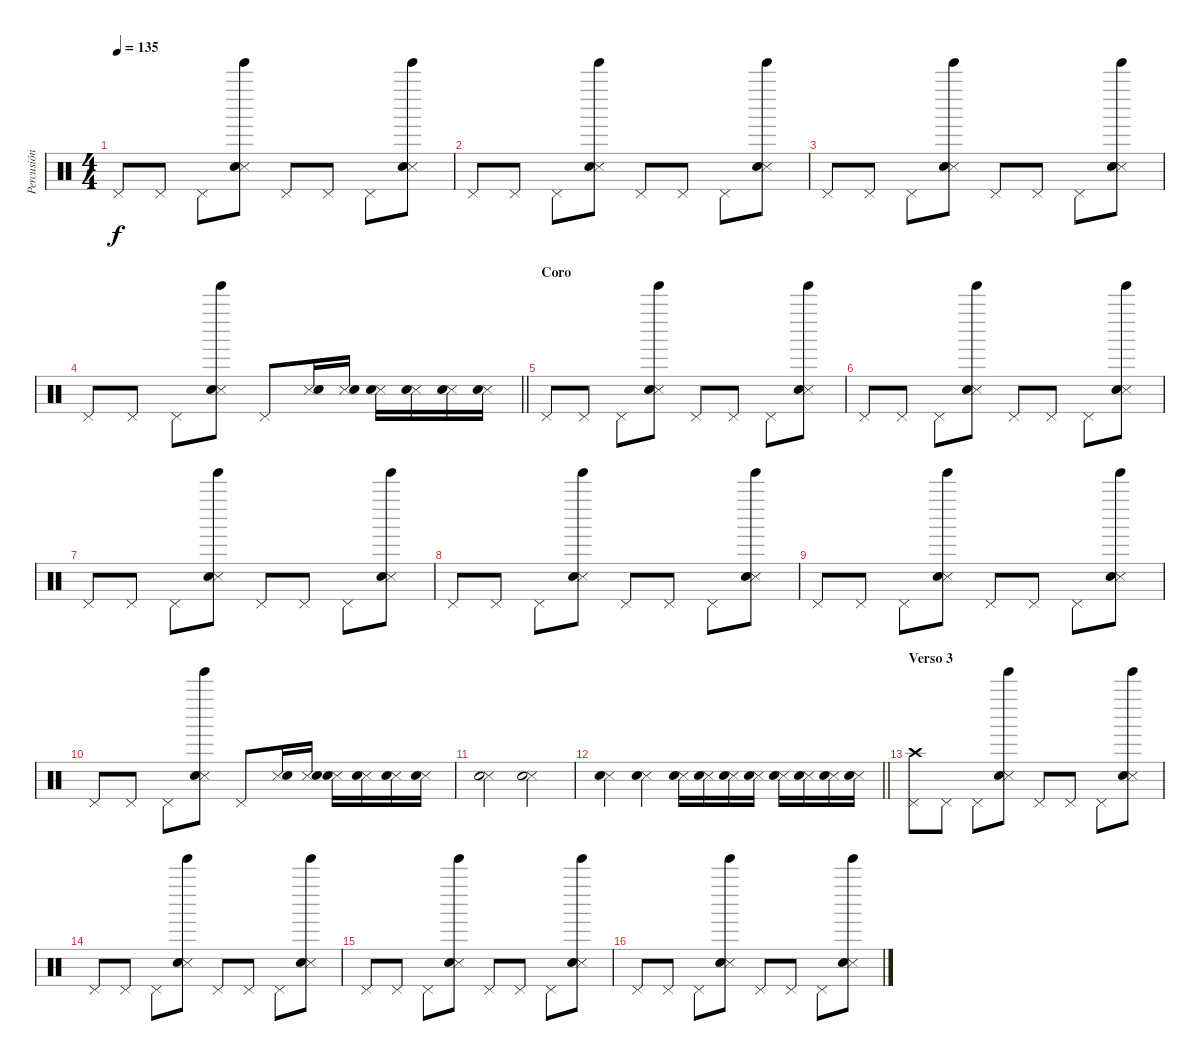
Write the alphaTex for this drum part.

\track ("Percusión" "Percusión") {instrument percussion}
\staff {score}
\articulation defaults
\ts (4 4)
\tempo 135
\clef neutral
\ks c "Pedal Hi-Hat (hit)".8{dy f} "Pedal Hi-Hat (hit)".8 "Pedal Hi-Hat (hit)".8
("Tinkle Bell (hit)" "Snare (side stick) 3" "Snare (hit) 2").8 "Pedal Hi-Hat (hit)".8 "Pedal Hi-Hat (hit)".8 "Pedal Hi-Hat (hit)".8 ("Tinkle Bell (hit)" "Snare (side stick) 3" "Snare (hit) 2").8 |
"Pedal Hi-Hat (hit)".8 "Pedal Hi-Hat (hit)".8 "Pedal Hi-Hat (hit)".8 ("Tinkle Bell (hit)" "Snare (side stick) 3" "Snare (hit) 2").8 "Pedal Hi-Hat (hit)".8 "Pedal Hi-Hat (hit)".8 "Pedal Hi-Hat (hit)".8 ("Tinkle Bell (hit)" "Snare (side stick) 3" "Snare (hit) 2").8 |
"Pedal Hi-Hat (hit)".8 "Pedal Hi-Hat (hit)".8 "Pedal Hi-Hat (hit)".8 ("Tinkle Bell (hit)" "Snare (side stick) 3" "Snare (hit) 2").8 "Pedal Hi-Hat (hit)".8 "Pedal Hi-Hat (hit)".8 "Pedal Hi-Hat (hit)".8 ("Tinkle Bell (hit)" "Snare (side stick) 3" "Snare (hit) 2").8 |
\barLineRight lightlight "Pedal Hi-Hat (hit)".8 "Pedal Hi-Hat (hit)".8 "Pedal Hi-Hat (hit)".8
("Tinkle Bell (hit)" "Snare (side stick) 3" "Snare (hit) 2").8 "Pedal Hi-Hat (hit)".8 ("Snare (side stick) 3" "Snare (hit) 2").16 ("Snare (side stick) 3" "Snare (hit) 2").16 ("Snare (side stick) 3" "Snare (hit) 2").16 ("Snare (side stick) 3" "Snare (hit) 2").16 ("Snare (side stick) 3" "Snare (hit) 2").16 ("Snare (side stick) 3" "Snare (hit) 2").16 |
\section ("" "Coro")
"Pedal Hi-Hat (hit)".8 "Pedal Hi-Hat (hit)".8 "Pedal Hi-Hat (hit)".8 ("Tinkle Bell (hit)" "Snare (side stick) 3" "Snare (hit) 2").8 "Pedal Hi-Hat (hit)".8 "Pedal Hi-Hat (hit)".8 "Pedal Hi-Hat (hit)".8 ("Tinkle Bell (hit)" "Snare (side stick) 3" "Snare (hit) 2").8 |
"Pedal Hi-Hat (hit)".8 "Pedal Hi-Hat (hit)".8 "Pedal Hi-Hat (hit)".8 ("Tinkle Bell (hit)" "Snare (side stick) 3" "Snare (hit) 2").8 "Pedal Hi-Hat (hit)".8 "Pedal Hi-Hat (hit)".8 "Pedal Hi-Hat (hit)".8 ("Tinkle Bell (hit)" "Snare (side stick) 3" "Snare (hit) 2").8 |
"Pedal Hi-Hat (hit)".8 "Pedal Hi-Hat (hit)".8 "Pedal Hi-Hat (hit)".8 ("Tinkle Bell (hit)" "Snare (side stick) 3" "Snare (hit) 2").8 "Pedal Hi-Hat (hit)".8 "Pedal Hi-Hat (hit)".8 "Pedal Hi-Hat (hit)".8 ("Tinkle Bell (hit)" "Snare (side stick) 3" "Snare (hit) 2").8 |
"Pedal Hi-Hat (hit)".8 "Pedal Hi-Hat (hit)".8 "Pedal Hi-Hat (hit)".8 ("Tinkle Bell (hit)" "Snare (side stick) 3" "Snare (hit) 2").8 "Pedal Hi-Hat (hit)".8 "Pedal Hi-Hat (hit)".8 "Pedal Hi-Hat (hit)".8 ("Tinkle Bell (hit)" "Snare (side stick) 3" "Snare (hit) 2").8 |
"Pedal Hi-Hat (hit)".8 "Pedal Hi-Hat (hit)".8 "Pedal Hi-Hat (hit)".8 ("Tinkle Bell (hit)" "Snare (side stick) 3" "Snare (hit) 2").8 "Pedal Hi-Hat (hit)".8 "Pedal Hi-Hat (hit)".8 "Pedal Hi-Hat (hit)".8 ("Tinkle Bell (hit)" "Snare (side stick) 3" "Snare (hit) 2").8 |
"Pedal Hi-Hat (hit)".8 "Pedal Hi-Hat (hit)".8 "Pedal Hi-Hat (hit)".8 ("Tinkle Bell (hit)" "Snare (side stick) 3" "Snare (hit) 2").8 "Pedal Hi-Hat (hit)".8 ("Snare (side stick) 3" "Snare (hit) 2").16 ("Snare (side stick) 3" "Snare (hit) 2").16 ("Snare (side stick) 3" "Snare (hit) 2").16 ("Snare (side stick) 3" "Snare (hit) 2").16 ("Snare (side stick) 3" "Snare (hit) 2").16 ("Snare (side stick) 3" "Snare (hit) 2").16 |
("Snare (side stick) 3" "Snare (hit) 2").2 ("Snare (side stick) 3" "Snare (hit) 2").2 |
\barLineRight lightlight
("Snare (side stick) 3" "Snare (hit) 2").4 ("Snare (side stick) 3" "Snare (hit) 2").4 ("Snare (side stick) 3" "Snare (hit) 2").16 ("Snare (side stick) 3" "Snare (hit) 2").16 ("Snare (side stick) 3" "Snare (hit) 2").16 ("Snare (side stick) 3" "Snare (hit) 2").16 ("Snare (side stick) 3" "Snare (hit) 2").16 ("Snare (side stick) 3" "Snare (hit) 2").16 ("Snare (side stick) 3" "Snare (hit) 2").16 ("Snare (side stick) 3" "Snare (hit) 2").16 |
\section ("" "Verso 3")
("Crash high (hit)" "Pedal Hi-Hat (hit)").8 "Pedal Hi-Hat (hit)".8 "Pedal Hi-Hat (hit)".8 ("Tinkle Bell (hit)" "Snare (side stick) 3" "Snare (hit) 2").8 "Pedal Hi-Hat (hit)".8 "Pedal Hi-Hat (hit)".8 "Pedal Hi-Hat (hit)".8 ("Tinkle Bell (hit)" "Snare (side stick) 3" "Snare (hit) 2").8 |
"Pedal Hi-Hat (hit)".8 "Pedal Hi-Hat (hit)".8 "Pedal Hi-Hat (hit)".8 ("Tinkle Bell (hit)" "Snare (side stick) 3" "Snare (hit) 2").8 "Pedal Hi-Hat (hit)".8 "Pedal Hi-Hat (hit)".8 "Pedal Hi-Hat (hit)".8 ("Tinkle Bell (hit)" "Snare (side stick) 3" "Snare (hit) 2").8 |
"Pedal Hi-Hat (hit)".8 "Pedal Hi-Hat (hit)".8 "Pedal Hi-Hat (hit)".8 ("Tinkle Bell (hit)" "Snare (side stick) 3" "Snare (hit) 2").8 "Pedal Hi-Hat (hit)".8 "Pedal Hi-Hat (hit)".8 "Pedal Hi-Hat (hit)".8 ("Tinkle Bell (hit)" "Snare (side stick) 3" "Snare (hit) 2").8 |
"Pedal Hi-Hat (hit)".8 "Pedal Hi-Hat (hit)".8 "Pedal Hi-Hat (hit)".8 ("Tinkle Bell (hit)" "Snare (side stick) 3" "Snare (hit) 2").8 "Pedal Hi-Hat (hit)".8 "Pedal Hi-Hat (hit)".8 "Pedal Hi-Hat (hit)".8 ("Tinkle Bell (hit)" "Snare (side stick) 3" "Snare (hit) 2").8
